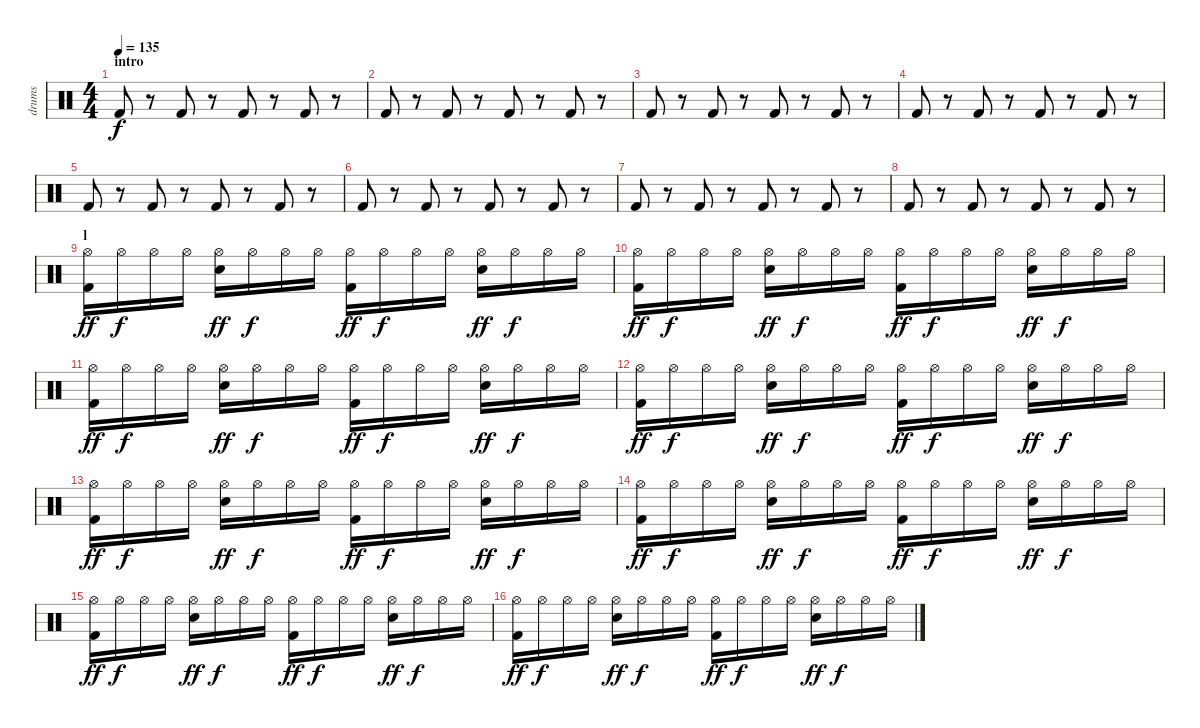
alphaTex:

\track ("drums" "drums") {instrument percussion}
\staff {score}
\articulation defaults
\ts (4 4)
\section ("" "intro")
\tempo 135
\clef neutral
\ks c "Kick (hit) 2".8{dy f volume 3}
r.8 "Kick (hit) 2".8{volume 14} r.8 "Kick (hit) 2".8 r.8 "Kick (hit) 2".8 r.8 |
"Kick (hit) 2".8 r.8 "Kick (hit) 2".8 r.8 "Kick (hit) 2".8 r.8 "Kick (hit) 2".8 r.8 |
"Kick (hit) 2".8 r.8 "Kick (hit) 2".8 r.8 "Kick (hit) 2".8 r.8 "Kick (hit) 2".8 r.8 |
"Kick (hit) 2".8 r.8 "Kick (hit) 2".8 r.8 "Kick (hit) 2".8 r.8 "Kick (hit) 2".8 r.8 |
"Kick (hit) 2".8 r.8 "Kick (hit) 2".8 r.8 "Kick (hit) 2".8 r.8 "Kick (hit) 2".8 r.8 |
"Kick (hit) 2".8 r.8 "Kick (hit) 2".8 r.8 "Kick (hit) 2".8 r.8 "Kick (hit) 2".8 r.8 |
"Kick (hit) 2".8 r.8 "Kick (hit) 2".8 r.8 "Kick (hit) 2".8 r.8 "Kick (hit) 2".8 r.8 |
"Kick (hit) 2".8 r.8 "Kick (hit) 2".8 r.8 "Kick (hit) 2".8 r.8 "Kick (hit) 2".8 r.8 |
\section ("" "l")
("Hi-Hat (open)" "Kick (hit) 2").16{dy ff} "Hi-Hat (open)".16{dy f} "Hi-Hat (open)".16 "Hi-Hat (open)".16 ("Hi-Hat (open)" "Electric Snare (hit)").16{dy ff} "Hi-Hat (open)".16{dy f} "Hi-Hat (open)".16 "Hi-Hat (open)".16 ("Hi-Hat (open)" "Kick (hit) 2").16{dy ff} "Hi-Hat (open)".16{dy f} "Hi-Hat (open)".16 "Hi-Hat (open)".16 ("Hi-Hat (open)" "Electric Snare (hit)").16{dy ff} "Hi-Hat (open)".16{dy f} "Hi-Hat (open)".16 "Hi-Hat (open)".16 |
("Hi-Hat (open)" "Kick (hit) 2").16{dy ff} "Hi-Hat (open)".16{dy f} "Hi-Hat (open)".16 "Hi-Hat (open)".16 ("Hi-Hat (open)" "Electric Snare (hit)").16{dy ff} "Hi-Hat (open)".16{dy f} "Hi-Hat (open)".16 "Hi-Hat (open)".16 ("Hi-Hat (open)" "Kick (hit) 2").16{dy ff} "Hi-Hat (open)".16{dy f} "Hi-Hat (open)".16 "Hi-Hat (open)".16 ("Hi-Hat (open)" "Electric Snare (hit)").16{dy ff} "Hi-Hat (open)".16{dy f} "Hi-Hat (open)".16 "Hi-Hat (open)".16 |
("Hi-Hat (open)" "Kick (hit) 2").16{dy ff} "Hi-Hat (open)".16{dy f} "Hi-Hat (open)".16 "Hi-Hat (open)".16 ("Hi-Hat (open)" "Electric Snare (hit)").16{dy ff} "Hi-Hat (open)".16{dy f} "Hi-Hat (open)".16 "Hi-Hat (open)".16 ("Hi-Hat (open)" "Kick (hit) 2").16{dy ff} "Hi-Hat (open)".16{dy f} "Hi-Hat (open)".16 "Hi-Hat (open)".16 ("Hi-Hat (open)" "Electric Snare (hit)").16{dy ff} "Hi-Hat (open)".16{dy f} "Hi-Hat (open)".16 "Hi-Hat (open)".16 |
("Hi-Hat (open)" "Kick (hit) 2").16{dy ff} "Hi-Hat (open)".16{dy f} "Hi-Hat (open)".16 "Hi-Hat (open)".16 ("Hi-Hat (open)" "Electric Snare (hit)").16{dy ff} "Hi-Hat (open)".16{dy f} "Hi-Hat (open)".16 "Hi-Hat (open)".16 ("Hi-Hat (open)" "Kick (hit) 2").16{dy ff} "Hi-Hat (open)".16{dy f} "Hi-Hat (open)".16 "Hi-Hat (open)".16 ("Hi-Hat (open)" "Electric Snare (hit)").16{dy ff} "Hi-Hat (open)".16{dy f} "Hi-Hat (open)".16 "Hi-Hat (open)".16 |
("Hi-Hat (open)" "Kick (hit) 2").16{dy ff} "Hi-Hat (open)".16{dy f} "Hi-Hat (open)".16 "Hi-Hat (open)".16 ("Hi-Hat (open)" "Electric Snare (hit)").16{dy ff} "Hi-Hat (open)".16{dy f} "Hi-Hat (open)".16 "Hi-Hat (open)".16 ("Hi-Hat (open)" "Kick (hit) 2").16{dy ff} "Hi-Hat (open)".16{dy f} "Hi-Hat (open)".16 "Hi-Hat (open)".16 ("Hi-Hat (open)" "Electric Snare (hit)").16{dy ff} "Hi-Hat (open)".16{dy f} "Hi-Hat (open)".16 "Hi-Hat (open)".16 |
("Hi-Hat (open)" "Kick (hit) 2").16{dy ff} "Hi-Hat (open)".16{dy f} "Hi-Hat (open)".16 "Hi-Hat (open)".16 ("Hi-Hat (open)" "Electric Snare (hit)").16{dy ff} "Hi-Hat (open)".16{dy f} "Hi-Hat (open)".16 "Hi-Hat (open)".16 ("Hi-Hat (open)" "Kick (hit) 2").16{dy ff} "Hi-Hat (open)".16{dy f} "Hi-Hat (open)".16 "Hi-Hat (open)".16 ("Hi-Hat (open)" "Electric Snare (hit)").16{dy ff} "Hi-Hat (open)".16{dy f} "Hi-Hat (open)".16 "Hi-Hat (open)".16 |
("Hi-Hat (open)" "Kick (hit) 2").16{dy ff} "Hi-Hat (open)".16{dy f} "Hi-Hat (open)".16 "Hi-Hat (open)".16 ("Hi-Hat (open)" "Electric Snare (hit)").16{dy ff} "Hi-Hat (open)".16{dy f} "Hi-Hat (open)".16 "Hi-Hat (open)".16 ("Hi-Hat (open)" "Kick (hit) 2").16{dy ff} "Hi-Hat (open)".16{dy f} "Hi-Hat (open)".16 "Hi-Hat (open)".16 ("Hi-Hat (open)" "Electric Snare (hit)").16{dy ff} "Hi-Hat (open)".16{dy f} "Hi-Hat (open)".16 "Hi-Hat (open)".16 |
("Hi-Hat (open)" "Kick (hit) 2").16{dy ff} "Hi-Hat (open)".16{dy f} "Hi-Hat (open)".16 "Hi-Hat (open)".16 ("Hi-Hat (open)" "Electric Snare (hit)").16{dy ff} "Hi-Hat (open)".16{dy f} "Hi-Hat (open)".16 "Hi-Hat (open)".16 ("Hi-Hat (open)" "Kick (hit) 2").16{dy ff} "Hi-Hat (open)".16{dy f} "Hi-Hat (open)".16 "Hi-Hat (open)".16 ("Hi-Hat (open)" "Electric Snare (hit)").16{dy ff} "Hi-Hat (open)".16{dy f} "Hi-Hat (open)".16 "Hi-Hat (open)".16
